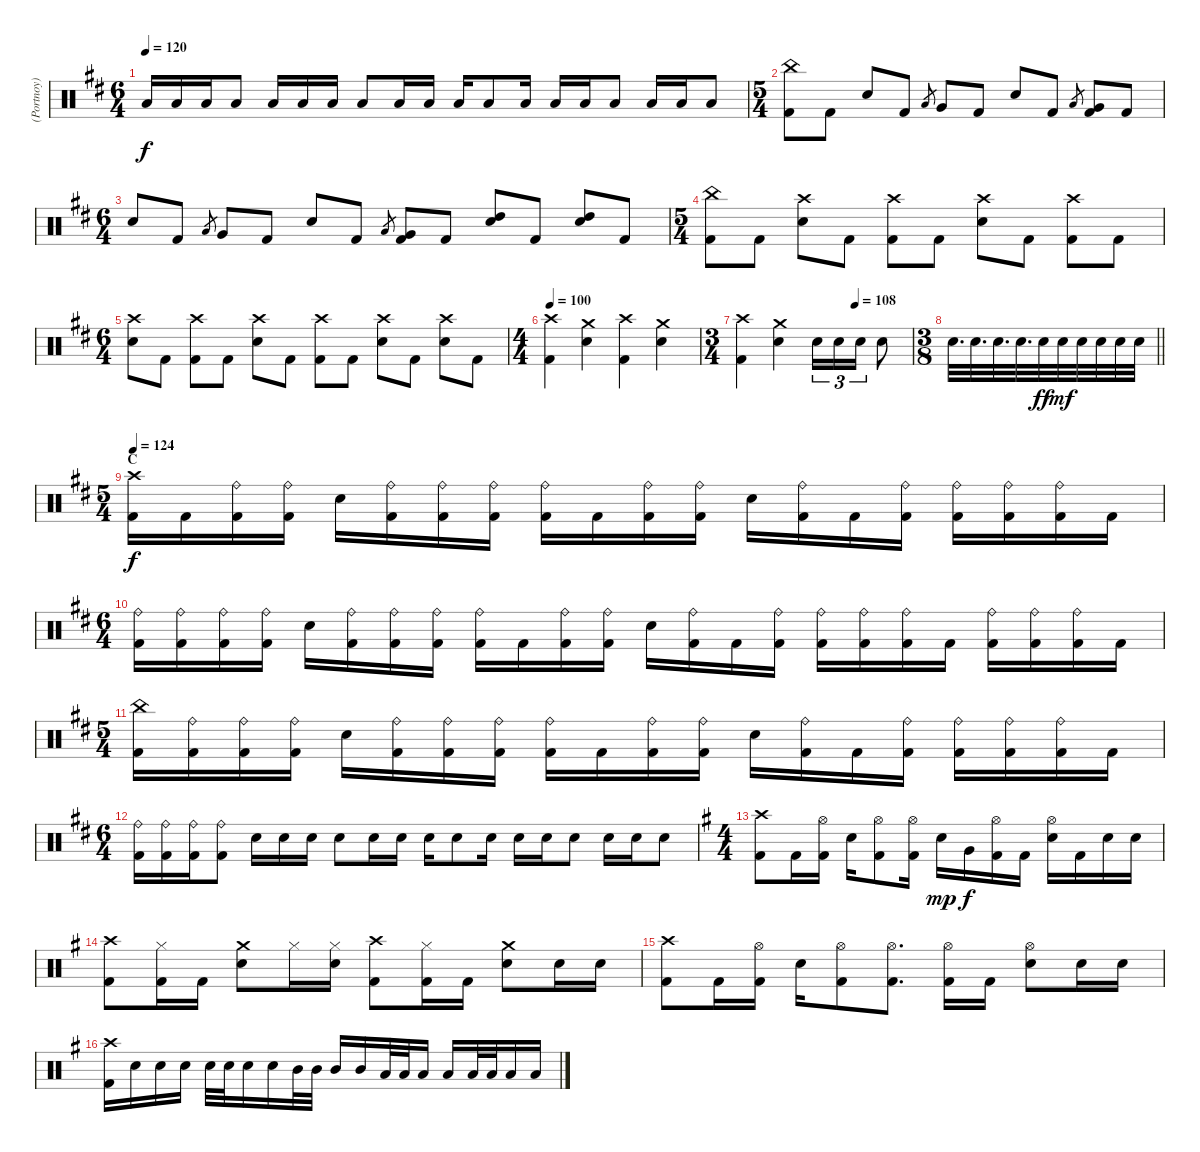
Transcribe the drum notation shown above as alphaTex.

\track ("(Portnoy) Drums" "(Portnoy) ") {instrument percussion}
\staff {score}
\articulation defaults
\ts (6 4)
\tempo 120
\clef neutral
\ks bminor "Low Floor Tom (hit)".16{dy f} "Low Floor Tom (hit)".16 "Low Floor Tom (hit)".16 "Low Floor Tom (hit)".8 "Low Floor Tom (hit)".16 "Low Floor Tom (hit)".16 "Low Floor Tom (hit)".16 "Low Floor Tom (hit)".8 "Low Floor Tom (hit)".16 "Low Floor Tom (hit)".16 "Low Floor Tom (hit)".16 "Low Floor Tom (hit)".8 "Low Floor Tom (hit)".16 "Low Floor Tom (hit)".16 "Low Floor Tom (hit)".16 "Low Floor Tom (hit)".8 "Low Floor Tom (hit)".16 "Low Floor Tom (hit)".16 "Low Floor Tom (hit)".8
|
\ts (5 4)
("China (hit)" "Kick (hit) 2").8 "Kick (hit) 2".8 "Snare (hit) 2".8 "Kick (hit) 2".8 "Low Floor Tom (hit)".8{gr} "Very Low Tom (hit)".8 "Kick (hit) 2".8 "Snare (hit) 2".8 "Kick (hit) 2".8 "Low Floor Tom (hit)".8{gr} ("Very Low Tom (hit)" "Kick (hit) 2").8 "Kick (hit) 2".8 |
\ts (6 4)
"Snare (hit) 2".8 "Kick (hit) 2".8 "Low Floor Tom (hit)".8{gr} "Very Low Tom (hit)".8 "Kick (hit) 2".8 "Snare (hit) 2".8 "Kick (hit) 2".8 "Low Floor Tom (hit)".8{gr} ("Very Low Tom (hit)" "Kick (hit) 2").8 "Kick (hit) 2".8 ("Snare (hit) 2" "High Tom (hit)").8 "Kick (hit) 2".8 ("Snare (hit) 2" "High Tom (hit)").8 "Kick (hit) 2".8 |
\ts (5 4)
("China (hit)" "Kick (hit) 2").8 "Kick (hit) 2".8 ("Crash high (hit)" "Snare (hit) 2").8 "Kick (hit) 2".8 ("Crash high (hit)" "Kick (hit) 2").8 "Kick (hit) 2".8 ("Crash high (hit)" "Snare (hit) 2").8 "Kick (hit) 2".8 ("Crash high (hit)" "Kick (hit) 2").8 "Kick (hit) 2".8 |
\ts (6 4)
("Crash high (hit)" "Snare (hit) 2").8 "Kick (hit) 2".8 ("Crash high (hit)" "Kick (hit) 2").8 "Kick (hit) 2".8 ("Crash high (hit)" "Snare (hit) 2").8 "Kick (hit) 2".8 ("Crash high (hit)" "Kick (hit) 2").8 "Kick (hit) 2".8 ("Crash high (hit)" "Snare (hit) 2").8 "Kick (hit) 2".8 ("Crash high (hit)" "Snare (hit) 2").8 "Kick (hit) 2".8 |
\ts (4 4)
\tempo 100
("Crash high (hit)" "Kick (hit) 2").4 ("Crash medium (hit)" "Snare (hit) 2").4 ("Crash high (hit)" "Kick (hit) 2").4 ("Crash medium (hit)" "Snare (hit) 2").4 |
\ts (3 4)
\tempo (108 0.6666666666666666)
("Crash high (hit)" "Kick (hit) 2").4 ("Crash medium (hit)" "Snare (hit) 2").4 "Snare (hit) 2".16{tu (3 2)} "Snare (hit) 2".16{tu (3 2)} "Snare (hit) 2".16{tu (3 2)} "Snare (hit) 2".8 |
\ts (3 8)
\barLineRight lightlight "Snare (hit) 2".32{d} "Snare (hit) 2".32{d} "Snare (hit) 2".32{d} "Snare (hit) 2".32{d} "Snare (hit) 2".32{dy ff} "Snare (hit) 2".32{dy mf} "Snare (hit) 2".32 "Snare (hit) 2".32 "Snare (hit) 2".32 "Snare (hit) 2".32
|
\ts (5 4)
\section ("" "C")
\tempo 124
("Crash high (hit)" "Kick (hit) 2").16{dy f} "Kick (hit) 2".16 ("Ride (bell)" "Kick (hit) 2").16 ("Ride (bell)" "Kick (hit) 2").16 "Snare (hit) 2".16 ("Ride (bell)" "Kick (hit) 2").16 ("Ride (bell)" "Kick (hit) 2").16 ("Ride (bell)" "Kick (hit) 2").16 ("Ride (bell)" "Kick (hit) 2").16 "Kick (hit) 2".16 ("Ride (bell)" "Kick (hit) 2").16 ("Ride (bell)" "Kick (hit) 2").16 "Snare (hit) 2".16 ("Ride (bell)" "Kick (hit) 2").16 "Kick (hit) 2".16 ("Ride (bell)" "Kick (hit) 2").16 ("Ride (bell)" "Kick (hit) 2").16 ("Ride (bell)" "Kick (hit) 2").16 ("Ride (bell)" "Kick (hit) 2").16 "Kick (hit) 2".16 |
\ts (6 4)
("Ride (bell)" "Kick (hit) 2").16 ("Ride (bell)" "Kick (hit) 2").16 ("Ride (bell)" "Kick (hit) 2").16 ("Ride (bell)" "Kick (hit) 2").16 "Snare (hit) 2".16 ("Ride (bell)" "Kick (hit) 2").16 ("Ride (bell)" "Kick (hit) 2").16 ("Ride (bell)" "Kick (hit) 2").16 ("Ride (bell)" "Kick (hit) 2").16 "Kick (hit) 2".16 ("Ride (bell)" "Kick (hit) 2").16 ("Ride (bell)" "Kick (hit) 2").16 "Snare (hit) 2".16 ("Ride (bell)" "Kick (hit) 2").16 "Kick (hit) 2".16 ("Ride (bell)" "Kick (hit) 2").16 ("Ride (bell)" "Kick (hit) 2").16 ("Ride (bell)" "Kick (hit) 2").16 ("Ride (bell)" "Kick (hit) 2").16 "Kick (hit) 2".16 ("Ride (bell)" "Kick (hit) 2").16 ("Ride (bell)" "Kick (hit) 2").16 ("Ride (bell)" "Kick (hit) 2").16 "Kick (hit) 2".16 |
\ts (5 4)
("China (hit)" "Kick (hit) 2").16 ("Ride (bell)" "Kick (hit) 2").16 ("Ride (bell)" "Kick (hit) 2").16 ("Ride (bell)" "Kick (hit) 2").16 "Snare (hit) 2".16 ("Ride (bell)" "Kick (hit) 2").16 ("Ride (bell)" "Kick (hit) 2").16 ("Ride (bell)" "Kick (hit) 2").16 ("Ride (bell)" "Kick (hit) 2").16 "Kick (hit) 2".16 ("Ride (bell)" "Kick (hit) 2").16 ("Ride (bell)" "Kick (hit) 2").16 "Snare (hit) 2".16 ("Ride (bell)" "Kick (hit) 2").16 "Kick (hit) 2".16 ("Ride (bell)" "Kick (hit) 2").16 ("Ride (bell)" "Kick (hit) 2").16 ("Ride (bell)" "Kick (hit) 2").16 ("Ride (bell)" "Kick (hit) 2").16 "Kick (hit) 2".16 |
\ts (6 4)
("Ride (bell)" "Kick (hit) 2").16 ("Ride (bell)" "Kick (hit) 2").16 ("Ride (bell)" "Kick (hit) 2").16 ("Ride (bell)" "Kick (hit) 2").8 "Snare (hit) 2".16 "Snare (hit) 2".16 "Snare (hit) 2".16 "Snare (hit) 2".8 "Snare (hit) 2".16 "Snare (hit) 2".16 "Snare (hit) 2".16 "Snare (hit) 2".8 "Snare (hit) 2".16 "Snare (hit) 2".16 "Snare (hit) 2".16 "Snare (hit) 2".8 "Snare (hit) 2".16 "Snare (hit) 2".16 "Snare (hit) 2".8 |
\ts (4 4)
\ks eminor
("Crash high (hit)" "Kick (hit) 2").8 "Kick (hit) 2".16 ("Hi-Hat (open)" "Kick (hit) 2").16 "Snare (hit) 2".16 ("Hi-Hat (open)" "Kick (hit) 2").8 ("Hi-Hat (open)" "Kick (hit) 2").16 "Snare (hit) 2".16{dy mp} "Very Low Tom (hit)".16{dy f} ("Hi-Hat (open)" "Kick (hit) 2").16 "Kick (hit) 2".16 ("Hi-Hat (open)" "Snare (hit) 2").16 "Kick (hit) 2".16 "Snare (hit) 2".16 "Snare (hit) 2".16 |
("Crash high (hit)" "Kick (hit) 2").8 ("Hi-Hat (closed)" "Kick (hit) 2").16 "Kick (hit) 2".16 ("Crash medium (hit)" "Snare (hit) 2").8 "Hi-Hat (closed)".16 ("Hi-Hat (closed)" "Snare (hit) 2").16 ("Crash high (hit)" "Kick (hit) 2").8 ("Hi-Hat (closed)" "Kick (hit) 2").16 "Kick (hit) 2".16 ("Crash medium (hit)" "Snare (hit) 2").8 "Snare (hit) 2".16 "Snare (hit) 2".16 |
("Crash high (hit)" "Kick (hit) 2").8 "Kick (hit) 2".16 ("Hi-Hat (open)" "Kick (hit) 2").16 "Snare (hit) 2".16 ("Hi-Hat (open)" "Kick (hit) 2").8 ("Hi-Hat (open)" "Kick (hit) 2").8{d} ("Hi-Hat (open)" "Kick (hit) 2").16 "Kick (hit) 2".16 ("Hi-Hat (open)" "Snare (hit) 2").8 "Snare (hit) 2".16 "Snare (hit) 2".16 |
("Crash high (hit)" "Kick (hit) 2").16 "Snare (hit) 2".16 "Snare (hit) 2".16 "Snare (hit) 2".16 "Snare (hit) 2".32 "Snare (hit) 2".32 "Snare (hit) 2".16 "Snare (hit) 2".16 "Mid Tom (hit)".32 "Mid Tom (hit)".32 "Mid Tom (hit)".16 "Mid Tom (hit)".16 "Low Tom (hit)".32 "Low Tom (hit)".32 "Low Tom (hit)".16 "Low Tom (hit)".16 "Low Floor Tom (hit)".32 "Low Floor Tom (hit)".32 "Low Floor Tom (hit)".16 "Low Floor Tom (hit)".16
